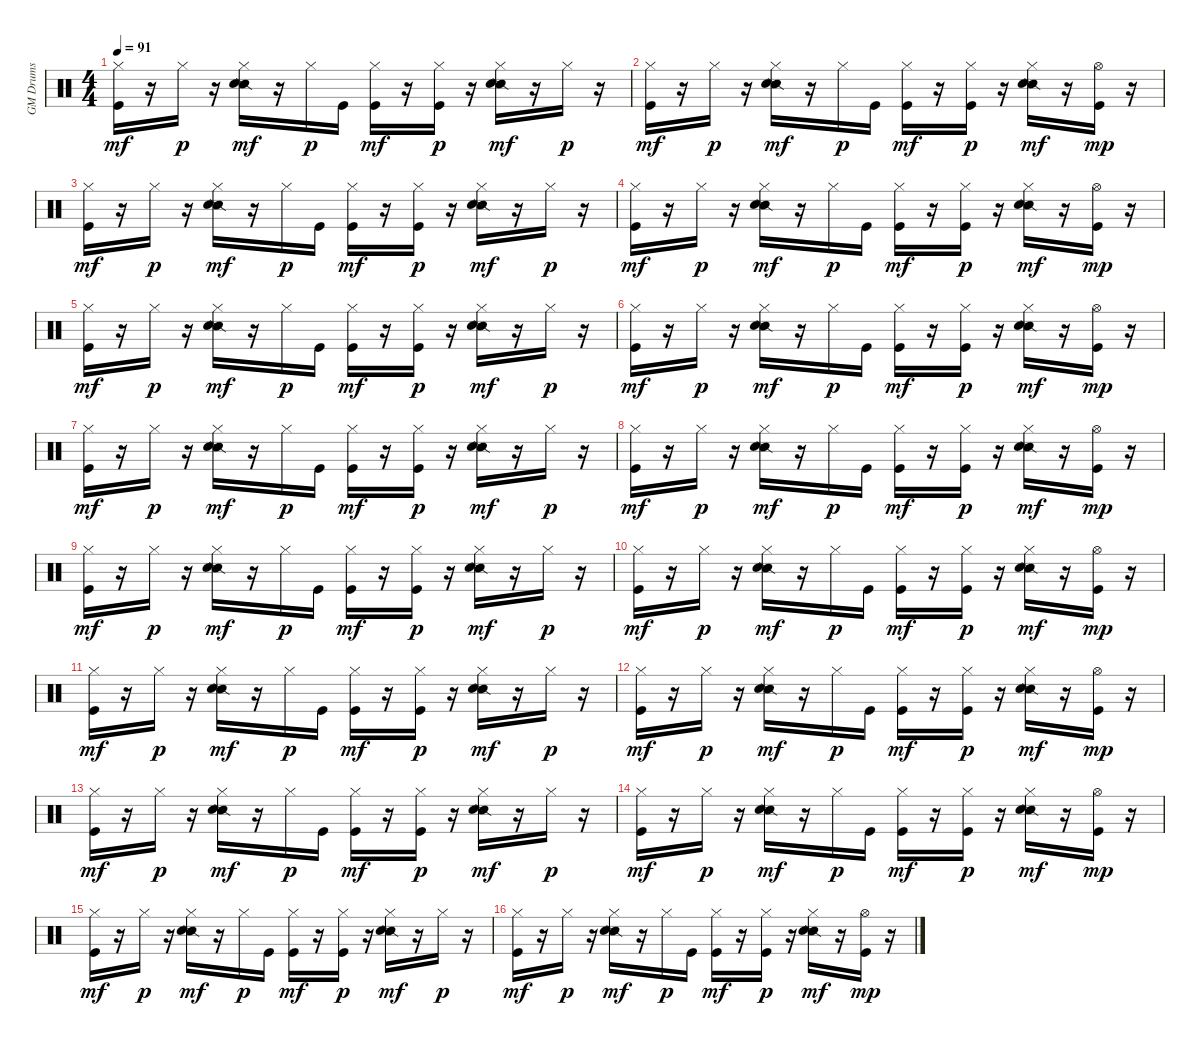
\track ("GM Drums" "GM Drums") {instrument percussion}
\staff {score}
\articulation defaults
\ts (4 4)
\tempo 91
\clef neutral
\ks c
("Kick (hit)" "Hi-Hat (closed)").16{dy mf} r.16 "Hi-Hat (closed)".16{dy p} r.16 ("Snare (side stick) 2" "Electric Snare (hit)" "Hi-Hat (closed)").16{dy mf} r.16 "Hi-Hat (closed)".16{dy p} "Kick (hit)".16 ("Kick (hit)" "Hi-Hat (closed)").16{dy mf} r.16 ("Kick (hit)" "Hi-Hat (closed)").16{dy p} r.16 ("Snare (side stick) 2" "Electric Snare (hit)" "Hi-Hat (closed)").16{dy mf} r.16 "Hi-Hat (closed)".16{dy p} r.16 |
("Kick (hit)" "Hi-Hat (closed)").16{dy mf} r.16 "Hi-Hat (closed)".16{dy p} r.16 ("Snare (side stick) 2" "Electric Snare (hit)" "Hi-Hat (closed)").16{dy mf} r.16 "Hi-Hat (closed)".16{dy p} "Kick (hit)".16 ("Kick (hit)" "Hi-Hat (closed)").16{dy mf} r.16 ("Kick (hit)" "Hi-Hat (closed)").16{dy p} r.16 ("Snare (side stick) 2" "Electric Snare (hit)" "Hi-Hat (closed)").16{dy mf} r.16 ("Kick (hit)" "Hi-Hat (open)").16{dy mp} r.16 |
("Kick (hit)" "Hi-Hat (closed)").16{dy mf} r.16 "Hi-Hat (closed)".16{dy p} r.16 ("Snare (side stick) 2" "Electric Snare (hit)" "Hi-Hat (closed)").16{dy mf} r.16 "Hi-Hat (closed)".16{dy p} "Kick (hit)".16 ("Kick (hit)" "Hi-Hat (closed)").16{dy mf} r.16 ("Kick (hit)" "Hi-Hat (closed)").16{dy p} r.16 ("Snare (side stick) 2" "Electric Snare (hit)" "Hi-Hat (closed)").16{dy mf} r.16 "Hi-Hat (closed)".16{dy p} r.16 |
("Kick (hit)" "Hi-Hat (closed)").16{dy mf} r.16 "Hi-Hat (closed)".16{dy p} r.16 ("Snare (side stick) 2" "Electric Snare (hit)" "Hi-Hat (closed)").16{dy mf} r.16 "Hi-Hat (closed)".16{dy p} "Kick (hit)".16 ("Kick (hit)" "Hi-Hat (closed)").16{dy mf} r.16 ("Kick (hit)" "Hi-Hat (closed)").16{dy p} r.16 ("Snare (side stick) 2" "Electric Snare (hit)" "Hi-Hat (closed)").16{dy mf} r.16 ("Kick (hit)" "Hi-Hat (open)").16{dy mp} r.16 |
("Kick (hit)" "Hi-Hat (closed)").16{dy mf} r.16 "Hi-Hat (closed)".16{dy p} r.16 ("Snare (side stick) 2" "Electric Snare (hit)" "Hi-Hat (closed)").16{dy mf} r.16 "Hi-Hat (closed)".16{dy p} "Kick (hit)".16 ("Kick (hit)" "Hi-Hat (closed)").16{dy mf} r.16 ("Kick (hit)" "Hi-Hat (closed)").16{dy p} r.16 ("Snare (side stick) 2" "Electric Snare (hit)" "Hi-Hat (closed)").16{dy mf} r.16 "Hi-Hat (closed)".16{dy p} r.16 |
("Kick (hit)" "Hi-Hat (closed)").16{dy mf} r.16 "Hi-Hat (closed)".16{dy p} r.16 ("Snare (side stick) 2" "Electric Snare (hit)" "Hi-Hat (closed)").16{dy mf} r.16 "Hi-Hat (closed)".16{dy p} "Kick (hit)".16 ("Kick (hit)" "Hi-Hat (closed)").16{dy mf} r.16 ("Kick (hit)" "Hi-Hat (closed)").16{dy p} r.16 ("Snare (side stick) 2" "Electric Snare (hit)" "Hi-Hat (closed)").16{dy mf} r.16 ("Kick (hit)" "Hi-Hat (open)").16{dy mp} r.16 |
("Kick (hit)" "Hi-Hat (closed)").16{dy mf} r.16 "Hi-Hat (closed)".16{dy p} r.16 ("Snare (side stick) 2" "Electric Snare (hit)" "Hi-Hat (closed)").16{dy mf} r.16 "Hi-Hat (closed)".16{dy p} "Kick (hit)".16 ("Kick (hit)" "Hi-Hat (closed)").16{dy mf} r.16 ("Kick (hit)" "Hi-Hat (closed)").16{dy p} r.16 ("Snare (side stick) 2" "Electric Snare (hit)" "Hi-Hat (closed)").16{dy mf} r.16 "Hi-Hat (closed)".16{dy p} r.16 |
("Kick (hit)" "Hi-Hat (closed)").16{dy mf} r.16 "Hi-Hat (closed)".16{dy p} r.16 ("Snare (side stick) 2" "Electric Snare (hit)" "Hi-Hat (closed)").16{dy mf} r.16 "Hi-Hat (closed)".16{dy p} "Kick (hit)".16 ("Kick (hit)" "Hi-Hat (closed)").16{dy mf} r.16 ("Kick (hit)" "Hi-Hat (closed)").16{dy p} r.16 ("Snare (side stick) 2" "Electric Snare (hit)" "Hi-Hat (closed)").16{dy mf} r.16 ("Kick (hit)" "Hi-Hat (open)").16{dy mp} r.16 |
("Kick (hit)" "Hi-Hat (closed)").16{dy mf} r.16 "Hi-Hat (closed)".16{dy p} r.16 ("Snare (side stick) 2" "Electric Snare (hit)" "Hi-Hat (closed)").16{dy mf} r.16 "Hi-Hat (closed)".16{dy p} "Kick (hit)".16 ("Kick (hit)" "Hi-Hat (closed)").16{dy mf} r.16 ("Kick (hit)" "Hi-Hat (closed)").16{dy p} r.16 ("Snare (side stick) 2" "Electric Snare (hit)" "Hi-Hat (closed)").16{dy mf} r.16 "Hi-Hat (closed)".16{dy p} r.16 |
("Kick (hit)" "Hi-Hat (closed)").16{dy mf} r.16 "Hi-Hat (closed)".16{dy p} r.16 ("Snare (side stick) 2" "Electric Snare (hit)" "Hi-Hat (closed)").16{dy mf} r.16 "Hi-Hat (closed)".16{dy p} "Kick (hit)".16 ("Kick (hit)" "Hi-Hat (closed)").16{dy mf} r.16 ("Kick (hit)" "Hi-Hat (closed)").16{dy p} r.16 ("Snare (side stick) 2" "Electric Snare (hit)" "Hi-Hat (closed)").16{dy mf} r.16 ("Kick (hit)" "Hi-Hat (open)").16{dy mp} r.16 |
("Kick (hit)" "Hi-Hat (closed)").16{dy mf} r.16 "Hi-Hat (closed)".16{dy p} r.16 ("Snare (side stick) 2" "Electric Snare (hit)" "Hi-Hat (closed)").16{dy mf} r.16 "Hi-Hat (closed)".16{dy p} "Kick (hit)".16 ("Kick (hit)" "Hi-Hat (closed)").16{dy mf} r.16 ("Kick (hit)" "Hi-Hat (closed)").16{dy p} r.16 ("Snare (side stick) 2" "Electric Snare (hit)" "Hi-Hat (closed)").16{dy mf} r.16 "Hi-Hat (closed)".16{dy p} r.16 |
("Kick (hit)" "Hi-Hat (closed)").16{dy mf} r.16 "Hi-Hat (closed)".16{dy p} r.16 ("Snare (side stick) 2" "Electric Snare (hit)" "Hi-Hat (closed)").16{dy mf} r.16 "Hi-Hat (closed)".16{dy p} "Kick (hit)".16 ("Kick (hit)" "Hi-Hat (closed)").16{dy mf} r.16 ("Kick (hit)" "Hi-Hat (closed)").16{dy p} r.16 ("Snare (side stick) 2" "Electric Snare (hit)" "Hi-Hat (closed)").16{dy mf} r.16 ("Kick (hit)" "Hi-Hat (open)").16{dy mp} r.16 |
("Kick (hit)" "Hi-Hat (closed)").16{dy mf} r.16 "Hi-Hat (closed)".16{dy p} r.16 ("Snare (side stick) 2" "Electric Snare (hit)" "Hi-Hat (closed)").16{dy mf} r.16 "Hi-Hat (closed)".16{dy p} "Kick (hit)".16 ("Kick (hit)" "Hi-Hat (closed)").16{dy mf} r.16 ("Kick (hit)" "Hi-Hat (closed)").16{dy p} r.16 ("Snare (side stick) 2" "Electric Snare (hit)" "Hi-Hat (closed)").16{dy mf} r.16 "Hi-Hat (closed)".16{dy p} r.16 |
("Kick (hit)" "Hi-Hat (closed)").16{dy mf} r.16 "Hi-Hat (closed)".16{dy p} r.16 ("Snare (side stick) 2" "Electric Snare (hit)" "Hi-Hat (closed)").16{dy mf} r.16 "Hi-Hat (closed)".16{dy p} "Kick (hit)".16 ("Kick (hit)" "Hi-Hat (closed)").16{dy mf} r.16 ("Kick (hit)" "Hi-Hat (closed)").16{dy p} r.16 ("Snare (side stick) 2" "Electric Snare (hit)" "Hi-Hat (closed)").16{dy mf} r.16 ("Kick (hit)" "Hi-Hat (open)").16{dy mp} r.16 |
("Kick (hit)" "Hi-Hat (closed)").16{dy mf} r.16 "Hi-Hat (closed)".16{dy p} r.16 ("Snare (side stick) 2" "Electric Snare (hit)" "Hi-Hat (closed)").16{dy mf} r.16 "Hi-Hat (closed)".16{dy p} "Kick (hit)".16 ("Kick (hit)" "Hi-Hat (closed)").16{dy mf} r.16 ("Kick (hit)" "Hi-Hat (closed)").16{dy p} r.16 ("Snare (side stick) 2" "Electric Snare (hit)" "Hi-Hat (closed)").16{dy mf} r.16 "Hi-Hat (closed)".16{dy p} r.16 |
("Kick (hit)" "Hi-Hat (closed)").16{dy mf} r.16 "Hi-Hat (closed)".16{dy p} r.16 ("Snare (side stick) 2" "Electric Snare (hit)" "Hi-Hat (closed)").16{dy mf} r.16 "Hi-Hat (closed)".16{dy p} "Kick (hit)".16 ("Kick (hit)" "Hi-Hat (closed)").16{dy mf} r.16 ("Kick (hit)" "Hi-Hat (closed)").16{dy p} r.16 ("Snare (side stick) 2" "Electric Snare (hit)" "Hi-Hat (closed)").16{dy mf} r.16 ("Kick (hit)" "Hi-Hat (open)").16{dy mp} r.16
